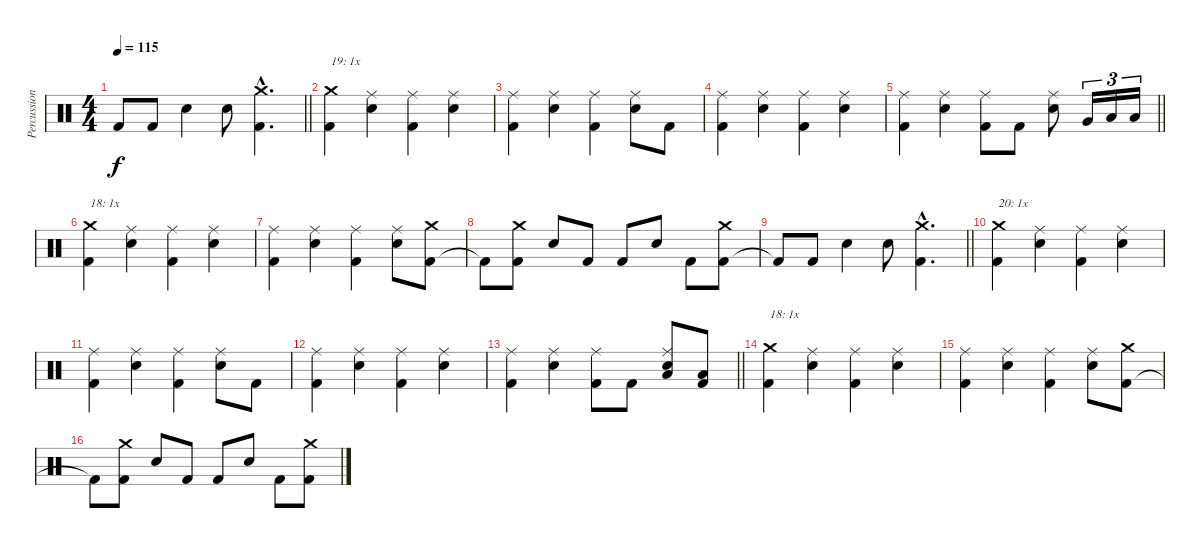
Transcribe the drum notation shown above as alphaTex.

\track ("Percussion" "Percussion") {instrument percussion}
\staff {score}
\articulation defaults
\ts (4 4)
\tempo 115
\clef neutral
\barLineRight lightlight
\ks c "Kick (hit) 2"{t}.8{dy f} "Kick (hit) 2".8 "Electric Snare (hit)".4 "Electric Snare (hit)".8
("Kick (hit) 2"{hac} "Crash medium (hit)"{hac}).4{d} |
("Kick (hit) 2" "Crash medium (hit)").4{txt "19: 1x"} ("Electric Snare (hit)" "Ride (middle)").4 ("Kick (hit) 2" "Ride (middle)").4 ("Electric Snare (hit)" "Ride (middle)").4 |
("Kick (hit) 2" "Ride (middle)").4 ("Electric Snare (hit)" "Ride (middle)").4 ("Kick (hit) 2" "Ride (middle)").4 ("Electric Snare (hit)" "Ride (middle)").8 "Kick (hit) 2".8 |
("Kick (hit) 2" "Ride (middle)").4 ("Electric Snare (hit)" "Ride (middle)").4 ("Kick (hit) 2" "Ride (middle)").4 ("Electric Snare (hit)" "Ride (middle)").4 |
\barLineRight lightlight
("Kick (hit) 2" "Ride (middle)").4 ("Electric Snare (hit)" "Ride (middle)").4 ("Kick (hit) 2" "Ride (middle)").8 "Kick (hit) 2".8 ("Electric Snare (hit)" "Ride (middle)").8 "Very Low Tom (hit)".16{tu (3 2)} "Low Tom (hit)".16{tu (3 2)} "Low Floor Tom (hit)".16{tu (3 2)} |
("Kick (hit) 2" "Crash medium (hit)").4{txt "18: 1x"} ("Electric Snare (hit)" "Ride (middle)").4 ("Kick (hit) 2" "Ride (middle)").4 ("Electric Snare (hit)" "Ride (middle)").4 |
("Kick (hit) 2" "Ride (middle)").4 ("Electric Snare (hit)" "Ride (middle)").4 ("Kick (hit) 2" "Ride (middle)").4 ("Electric Snare (hit)" "Ride (middle)").8 ("Kick (hit) 2" "Crash medium (hit)").8 |
"Kick (hit) 2"{t}.8 ("Kick (hit) 2" "Crash medium (hit)").8 "Electric Snare (hit)".8 "Kick (hit) 2".8 "Kick (hit) 2".8 "Electric Snare (hit)".8 "Kick (hit) 2".8 ("Kick (hit) 2" "Crash medium (hit)").8 |
\barLineRight lightlight "Kick (hit) 2"{t}.8 "Kick (hit) 2".8 "Electric Snare (hit)".4 "Electric Snare (hit)".8
("Kick (hit) 2"{hac} "Crash medium (hit)"{hac}).4{d} |
("Kick (hit) 2" "Crash medium (hit)").4{txt "20: 1x"} ("Electric Snare (hit)" "Ride (middle)").4 ("Kick (hit) 2" "Ride (middle)").4 ("Electric Snare (hit)" "Ride (middle)").4 |
("Kick (hit) 2" "Ride (middle)").4 ("Electric Snare (hit)" "Ride (middle)").4 ("Kick (hit) 2" "Ride (middle)").4 ("Electric Snare (hit)" "Ride (middle)").8 "Kick (hit) 2".8 |
("Kick (hit) 2" "Ride (middle)").4 ("Electric Snare (hit)" "Ride (middle)").4 ("Kick (hit) 2" "Ride (middle)").4 ("Electric Snare (hit)" "Ride (middle)").4 |
\barLineRight lightlight
("Kick (hit) 2" "Ride (middle)").4 ("Electric Snare (hit)" "Ride (middle)").4 ("Kick (hit) 2" "Ride (middle)").8 "Kick (hit) 2".8 ("Electric Snare (hit)" "Ride (middle)" "Low Floor Tom (hit)").8 ("Kick (hit) 2" "Low Floor Tom (hit)").8 |
("Kick (hit) 2" "Crash medium (hit)").4{txt "18: 1x"} ("Electric Snare (hit)" "Ride (middle)").4 ("Kick (hit) 2" "Ride (middle)").4 ("Electric Snare (hit)" "Ride (middle)").4 |
("Kick (hit) 2" "Ride (middle)").4 ("Electric Snare (hit)" "Ride (middle)").4 ("Kick (hit) 2" "Ride (middle)").4 ("Electric Snare (hit)" "Ride (middle)").8 ("Kick (hit) 2" "Crash medium (hit)").8 |
"Kick (hit) 2"{t}.8 ("Kick (hit) 2" "Crash medium (hit)").8 "Electric Snare (hit)".8 "Kick (hit) 2".8 "Kick (hit) 2".8 "Electric Snare (hit)".8 "Kick (hit) 2".8 ("Kick (hit) 2" "Crash medium (hit)").8
